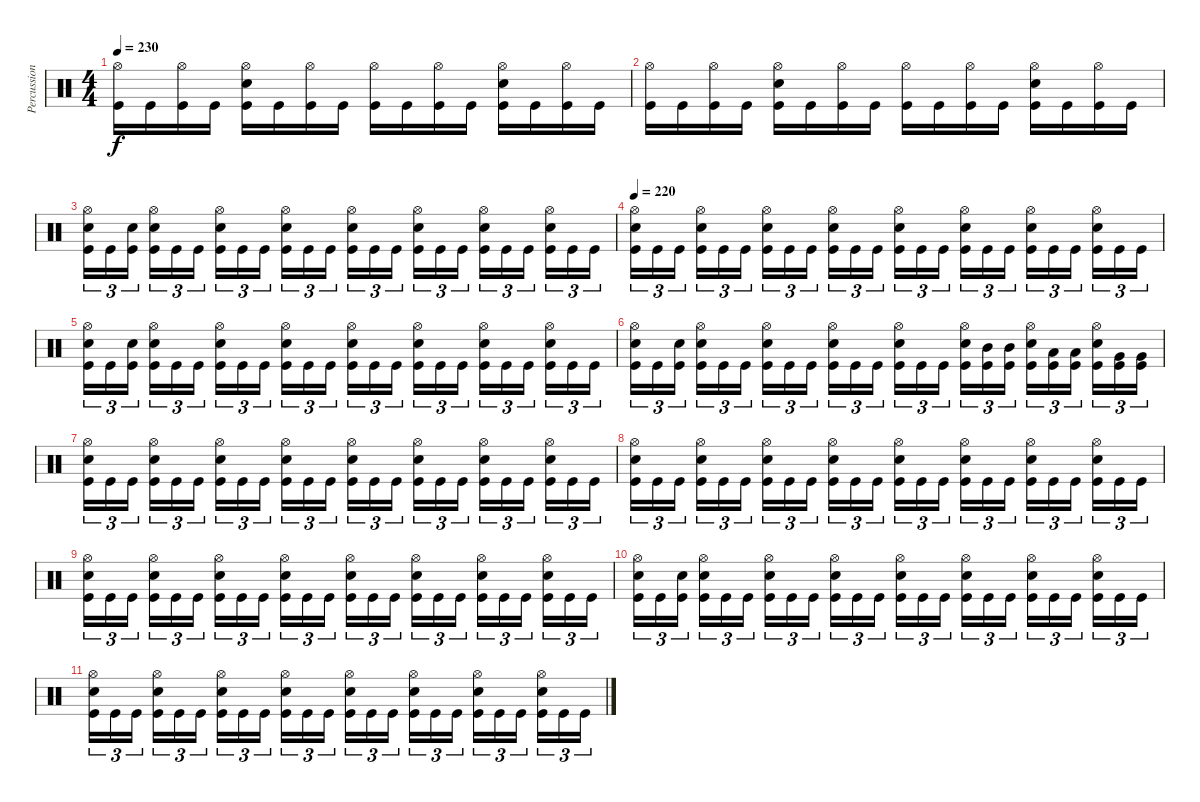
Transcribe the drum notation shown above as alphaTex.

\track ("Percussion" "Percussion") {instrument percussion}
\staff {score}
\articulation defaults
\ts (4 4)
\tempo 230
\clef neutral
\ks c
("Hi-Hat (open)" "Kick (hit)").16{dy f} "Kick (hit)".16 ("Hi-Hat (open)" "Kick (hit)").16 "Kick (hit)".16 ("Hi-Hat (open)" "Electric Snare (hit)" "Kick (hit)").16 "Kick (hit)".16 ("Hi-Hat (open)" "Kick (hit)").16 "Kick (hit)".16 ("Hi-Hat (open)" "Kick (hit)").16 "Kick (hit)".16 ("Hi-Hat (open)" "Kick (hit)").16 "Kick (hit)".16 ("Hi-Hat (open)" "Electric Snare (hit)" "Kick (hit)").16 "Kick (hit)".16 ("Hi-Hat (open)" "Kick (hit)").16 "Kick (hit)".16 |
("Hi-Hat (open)" "Kick (hit)").16 "Kick (hit)".16 ("Hi-Hat (open)" "Kick (hit)").16 "Kick (hit)".16 ("Hi-Hat (open)" "Electric Snare (hit)" "Kick (hit)").16 "Kick (hit)".16 ("Hi-Hat (open)" "Kick (hit)").16 "Kick (hit)".16 ("Hi-Hat (open)" "Kick (hit)").16 "Kick (hit)".16 ("Hi-Hat (open)" "Kick (hit)").16 "Kick (hit)".16 ("Hi-Hat (open)" "Electric Snare (hit)" "Kick (hit)").16 "Kick (hit)".16 ("Hi-Hat (open)" "Kick (hit)").16 "Kick (hit)".16 |
("Hi-Hat (open)" "Electric Snare (hit)" "Kick (hit)").16{tu (3 2)} "Kick (hit)".16{tu (3 2)} ("Electric Snare (hit)" "Kick (hit)").16{tu (3 2)} ("Hi-Hat (open)" "Electric Snare (hit)" "Kick (hit)").16{tu (3 2)} "Kick (hit)".16{tu (3 2)} "Kick (hit)".16{tu (3 2)} ("Hi-Hat (open)" "Electric Snare (hit)" "Kick (hit)").16{tu (3 2)} "Kick (hit)".16{tu (3 2)} "Kick (hit)".16{tu (3 2)} ("Hi-Hat (open)" "Electric Snare (hit)" "Kick (hit)").16{tu (3 2)} "Kick (hit)".16{tu (3 2)} "Kick (hit)".16{tu (3 2)} ("Hi-Hat (open)" "Electric Snare (hit)" "Kick (hit)").16{tu (3 2)} "Kick (hit)".16{tu (3 2)} "Kick (hit)".16{tu (3 2)} ("Hi-Hat (open)" "Electric Snare (hit)" "Kick (hit)").16{tu (3 2)} "Kick (hit)".16{tu (3 2)} "Kick (hit)".16{tu (3 2)} ("Hi-Hat (open)" "Electric Snare (hit)" "Kick (hit)").16{tu (3 2)} "Kick (hit)".16{tu (3 2)} "Kick (hit)".16{tu (3 2)} ("Hi-Hat (open)" "Electric Snare (hit)" "Kick (hit)").16{tu (3 2)} "Kick (hit)".16{tu (3 2)} "Kick (hit)".16{tu (3 2)} |
\tempo 220
("Hi-Hat (open)" "Electric Snare (hit)" "Kick (hit)").16{tu (3 2)} "Kick (hit)".16{tu (3 2)} "Kick (hit)".16{tu (3 2)} ("Hi-Hat (open)" "Electric Snare (hit)" "Kick (hit)").16{tu (3 2)} "Kick (hit)".16{tu (3 2)} "Kick (hit)".16{tu (3 2)} ("Hi-Hat (open)" "Electric Snare (hit)" "Kick (hit)").16{tu (3 2)} "Kick (hit)".16{tu (3 2)} "Kick (hit)".16{tu (3 2)} ("Hi-Hat (open)" "Electric Snare (hit)" "Kick (hit)").16{tu (3 2)} "Kick (hit)".16{tu (3 2)} "Kick (hit)".16{tu (3 2)} ("Hi-Hat (open)" "Electric Snare (hit)" "Kick (hit)").16{tu (3 2)} "Kick (hit)".16{tu (3 2)} "Kick (hit)".16{tu (3 2)} ("Hi-Hat (open)" "Electric Snare (hit)" "Kick (hit)").16{tu (3 2)} "Kick (hit)".16{tu (3 2)} "Kick (hit)".16{tu (3 2)} ("Hi-Hat (open)" "Electric Snare (hit)" "Kick (hit)").16{tu (3 2)} "Kick (hit)".16{tu (3 2)} "Kick (hit)".16{tu (3 2)} ("Hi-Hat (open)" "Electric Snare (hit)" "Kick (hit)").16{tu (3 2)} "Kick (hit)".16{tu (3 2)} "Kick (hit)".16{tu (3 2)} |
("Hi-Hat (open)" "Electric Snare (hit)" "Kick (hit)").16{tu (3 2)} "Kick (hit)".16{tu (3 2)} ("Electric Snare (hit)" "Kick (hit)").16{tu (3 2)} ("Hi-Hat (open)" "Electric Snare (hit)" "Kick (hit)").16{tu (3 2)} "Kick (hit)".16{tu (3 2)} "Kick (hit)".16{tu (3 2)} ("Hi-Hat (open)" "Electric Snare (hit)" "Kick (hit)").16{tu (3 2)} "Kick (hit)".16{tu (3 2)} "Kick (hit)".16{tu (3 2)} ("Hi-Hat (open)" "Electric Snare (hit)" "Kick (hit)").16{tu (3 2)} "Kick (hit)".16{tu (3 2)} "Kick (hit)".16{tu (3 2)} ("Hi-Hat (open)" "Electric Snare (hit)" "Kick (hit)").16{tu (3 2)} "Kick (hit)".16{tu (3 2)} "Kick (hit)".16{tu (3 2)} ("Hi-Hat (open)" "Electric Snare (hit)" "Kick (hit)").16{tu (3 2)} "Kick (hit)".16{tu (3 2)} "Kick (hit)".16{tu (3 2)} ("Hi-Hat (open)" "Electric Snare (hit)" "Kick (hit)").16{tu (3 2)} "Kick (hit)".16{tu (3 2)} "Kick (hit)".16{tu (3 2)} ("Hi-Hat (open)" "Electric Snare (hit)" "Kick (hit)").16{tu (3 2)} "Kick (hit)".16{tu (3 2)} "Kick (hit)".16{tu (3 2)} |
("Hi-Hat (open)" "Electric Snare (hit)" "Kick (hit)").16{tu (3 2)} "Kick (hit)".16{tu (3 2)} ("Electric Snare (hit)" "Kick (hit)").16{tu (3 2)} ("Hi-Hat (open)" "Electric Snare (hit)" "Kick (hit)").16{tu (3 2)} "Kick (hit)".16{tu (3 2)} "Kick (hit)".16{tu (3 2)} ("Hi-Hat (open)" "Electric Snare (hit)" "Kick (hit)").16{tu (3 2)} "Kick (hit)".16{tu (3 2)} "Kick (hit)".16{tu (3 2)} ("Hi-Hat (open)" "Electric Snare (hit)" "Kick (hit)").16{tu (3 2)} "Kick (hit)".16{tu (3 2)} "Kick (hit)".16{tu (3 2)} ("Hi-Hat (open)" "Electric Snare (hit)" "Kick (hit)").16{tu (3 2)} "Kick (hit)".16{tu (3 2)} "Kick (hit)".16{tu (3 2)} ("Hi-Hat (open)" "Electric Snare (hit)" "Kick (hit)").16{tu (3 2)} ("Mid Tom (hit)" "Kick (hit)").16{tu (3 2)} ("Mid Tom (hit)" "Kick (hit)").16{tu (3 2)} ("Hi-Hat (open)" "Electric Snare (hit)" "Kick (hit)").16{tu (3 2)} ("Low Tom (hit)" "Kick (hit)").16{tu (3 2)} ("Low Tom (hit)" "Kick (hit)").16{tu (3 2)} ("Hi-Hat (open)" "Electric Snare (hit)" "Kick (hit)").16{tu (3 2)} ("Very Low Tom (hit)" "Kick (hit)").16{tu (3 2)} ("Very Low Tom (hit)" "Kick (hit)").16{tu (3 2)} |
("Hi-Hat (open)" "Electric Snare (hit)" "Kick (hit)").16{tu (3 2)} "Kick (hit)".16{tu (3 2)} "Kick (hit)".16{tu (3 2)} ("Hi-Hat (open)" "Electric Snare (hit)" "Kick (hit)").16{tu (3 2)} "Kick (hit)".16{tu (3 2)} "Kick (hit)".16{tu (3 2)} ("Hi-Hat (open)" "Electric Snare (hit)" "Kick (hit)").16{tu (3 2)} "Kick (hit)".16{tu (3 2)} "Kick (hit)".16{tu (3 2)} ("Hi-Hat (open)" "Electric Snare (hit)" "Kick (hit)").16{tu (3 2)} "Kick (hit)".16{tu (3 2)} "Kick (hit)".16{tu (3 2)} ("Hi-Hat (open)" "Electric Snare (hit)" "Kick (hit)").16{tu (3 2)} "Kick (hit)".16{tu (3 2)} "Kick (hit)".16{tu (3 2)} ("Hi-Hat (open)" "Electric Snare (hit)" "Kick (hit)").16{tu (3 2)} "Kick (hit)".16{tu (3 2)} "Kick (hit)".16{tu (3 2)} ("Hi-Hat (open)" "Electric Snare (hit)" "Kick (hit)").16{tu (3 2)} "Kick (hit)".16{tu (3 2)} "Kick (hit)".16{tu (3 2)} ("Hi-Hat (open)" "Electric Snare (hit)" "Kick (hit)").16{tu (3 2)} "Kick (hit)".16{tu (3 2)} "Kick (hit)".16{tu (3 2)} |
("Hi-Hat (open)" "Electric Snare (hit)" "Kick (hit)").16{tu (3 2)} "Kick (hit)".16{tu (3 2)} "Kick (hit)".16{tu (3 2)} ("Hi-Hat (open)" "Electric Snare (hit)" "Kick (hit)").16{tu (3 2)} "Kick (hit)".16{tu (3 2)} "Kick (hit)".16{tu (3 2)} ("Hi-Hat (open)" "Electric Snare (hit)" "Kick (hit)").16{tu (3 2)} "Kick (hit)".16{tu (3 2)} "Kick (hit)".16{tu (3 2)} ("Hi-Hat (open)" "Electric Snare (hit)" "Kick (hit)").16{tu (3 2)} "Kick (hit)".16{tu (3 2)} "Kick (hit)".16{tu (3 2)} ("Hi-Hat (open)" "Electric Snare (hit)" "Kick (hit)").16{tu (3 2)} "Kick (hit)".16{tu (3 2)} "Kick (hit)".16{tu (3 2)} ("Hi-Hat (open)" "Electric Snare (hit)" "Kick (hit)").16{tu (3 2)} "Kick (hit)".16{tu (3 2)} "Kick (hit)".16{tu (3 2)} ("Hi-Hat (open)" "Electric Snare (hit)" "Kick (hit)").16{tu (3 2)} "Kick (hit)".16{tu (3 2)} "Kick (hit)".16{tu (3 2)} ("Hi-Hat (open)" "Electric Snare (hit)" "Kick (hit)").16{tu (3 2)} "Kick (hit)".16{tu (3 2)} "Kick (hit)".16{tu (3 2)} |
("Hi-Hat (open)" "Electric Snare (hit)" "Kick (hit)").16{tu (3 2)} "Kick (hit)".16{tu (3 2)} "Kick (hit)".16{tu (3 2)} ("Hi-Hat (open)" "Electric Snare (hit)" "Kick (hit)").16{tu (3 2)} "Kick (hit)".16{tu (3 2)} "Kick (hit)".16{tu (3 2)} ("Hi-Hat (open)" "Electric Snare (hit)" "Kick (hit)").16{tu (3 2)} "Kick (hit)".16{tu (3 2)} "Kick (hit)".16{tu (3 2)} ("Hi-Hat (open)" "Electric Snare (hit)" "Kick (hit)").16{tu (3 2)} "Kick (hit)".16{tu (3 2)} "Kick (hit)".16{tu (3 2)} ("Hi-Hat (open)" "Electric Snare (hit)" "Kick (hit)").16{tu (3 2)} "Kick (hit)".16{tu (3 2)} "Kick (hit)".16{tu (3 2)} ("Hi-Hat (open)" "Electric Snare (hit)" "Kick (hit)").16{tu (3 2)} "Kick (hit)".16{tu (3 2)} "Kick (hit)".16{tu (3 2)} ("Hi-Hat (open)" "Electric Snare (hit)" "Kick (hit)").16{tu (3 2)} "Kick (hit)".16{tu (3 2)} "Kick (hit)".16{tu (3 2)} ("Hi-Hat (open)" "Electric Snare (hit)" "Kick (hit)").16{tu (3 2)} "Kick (hit)".16{tu (3 2)} "Kick (hit)".16{tu (3 2)} |
("Hi-Hat (open)" "Electric Snare (hit)" "Kick (hit)").16{tu (3 2)} "Kick (hit)".16{tu (3 2)} ("Electric Snare (hit)" "Kick (hit)").16{tu (3 2)} ("Hi-Hat (open)" "Electric Snare (hit)" "Kick (hit)").16{tu (3 2)} "Kick (hit)".16{tu (3 2)} "Kick (hit)".16{tu (3 2)} ("Hi-Hat (open)" "Electric Snare (hit)" "Kick (hit)").16{tu (3 2)} "Kick (hit)".16{tu (3 2)} "Kick (hit)".16{tu (3 2)} ("Hi-Hat (open)" "Electric Snare (hit)" "Kick (hit)").16{tu (3 2)} "Kick (hit)".16{tu (3 2)} "Kick (hit)".16{tu (3 2)} ("Hi-Hat (open)" "Electric Snare (hit)" "Kick (hit)").16{tu (3 2)} "Kick (hit)".16{tu (3 2)} "Kick (hit)".16{tu (3 2)} ("Hi-Hat (open)" "Electric Snare (hit)" "Kick (hit)").16{tu (3 2)} "Kick (hit)".16{tu (3 2)} "Kick (hit)".16{tu (3 2)} ("Hi-Hat (open)" "Electric Snare (hit)" "Kick (hit)").16{tu (3 2)} "Kick (hit)".16{tu (3 2)} "Kick (hit)".16{tu (3 2)} ("Hi-Hat (open)" "Electric Snare (hit)" "Kick (hit)").16{tu (3 2)} "Kick (hit)".16{tu (3 2)} "Kick (hit)".16{tu (3 2)} |
("Hi-Hat (open)" "Electric Snare (hit)" "Kick (hit)").16{tu (3 2)} "Kick (hit)".16{tu (3 2)} "Kick (hit)".16{tu (3 2)} ("Hi-Hat (open)" "Electric Snare (hit)" "Kick (hit)").16{tu (3 2)} "Kick (hit)".16{tu (3 2)} "Kick (hit)".16{tu (3 2)} ("Hi-Hat (open)" "Electric Snare (hit)" "Kick (hit)").16{tu (3 2)} "Kick (hit)".16{tu (3 2)} "Kick (hit)".16{tu (3 2)} ("Hi-Hat (open)" "Electric Snare (hit)" "Kick (hit)").16{tu (3 2)} "Kick (hit)".16{tu (3 2)} "Kick (hit)".16{tu (3 2)} ("Hi-Hat (open)" "Electric Snare (hit)" "Kick (hit)").16{tu (3 2)} "Kick (hit)".16{tu (3 2)} "Kick (hit)".16{tu (3 2)} ("Hi-Hat (open)" "Electric Snare (hit)" "Kick (hit)").16{tu (3 2)} "Kick (hit)".16{tu (3 2)} "Kick (hit)".16{tu (3 2)} ("Hi-Hat (open)" "Electric Snare (hit)" "Kick (hit)").16{tu (3 2)} "Kick (hit)".16{tu (3 2)} "Kick (hit)".16{tu (3 2)} ("Hi-Hat (open)" "Electric Snare (hit)" "Kick (hit)").16{tu (3 2)} "Kick (hit)".16{tu (3 2)} "Kick (hit)".16{tu (3 2)}
